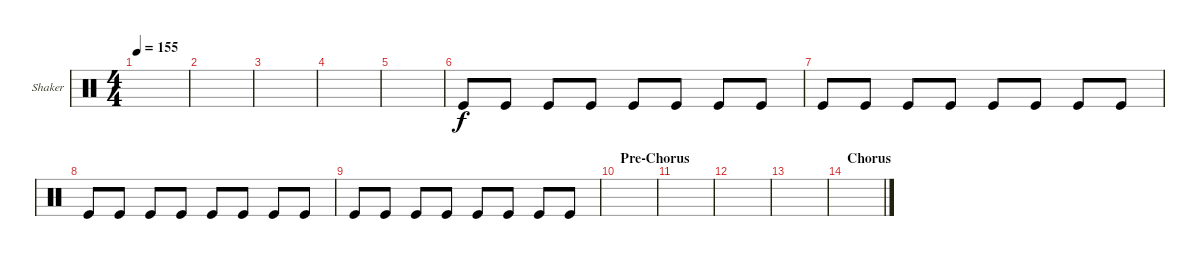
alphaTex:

\defaultSystemsLayout 4
\bracketExtendMode groupsimilarinstruments
\firstSystemTrackNameOrientation horizontal
\otherSystemsTrackNameOrientation horizontal
\track ("Shaker" "Shaker") {instrument percussion}
\staff {score}
\articulation defaults
\ts (4 4)
\tempo 155
\clef neutral
\scale
0.333333
\ks c
|
\scale
0.333333 |
\scale
0.333333 |
\scale
0.333333 |
\scale
0.333333 |
\scale
0.333333 "Kick (hit)".8 "Kick (hit)".8 "Kick (hit)".8 "Kick (hit)".8 "Kick (hit)".8 "Kick (hit)".8 "Kick (hit)".8 "Kick (hit)".8 |
\scale
0.333333 "Kick (hit)".8 "Kick (hit)".8 "Kick (hit)".8 "Kick (hit)".8 "Kick (hit)".8 "Kick (hit)".8 "Kick (hit)".8 "Kick (hit)".8 |
\scale
0.333333 "Kick (hit)".8 "Kick (hit)".8 "Kick (hit)".8 "Kick (hit)".8 "Kick (hit)".8 "Kick (hit)".8 "Kick (hit)".8 "Kick (hit)".8 |
\scale
0.333333 "Kick (hit)".8 "Kick (hit)".8 "Kick (hit)".8 "Kick (hit)".8 "Kick (hit)".8 "Kick (hit)".8 "Kick (hit)".8 "Kick (hit)".8 |
\section ("" "Pre-Chorus")
\scale
0.333333 |
\scale
0.333333 |
\scale
0.333333 |
\scale
0.333333 |
\section ("" "Chorus")
\scale
0.333333 |
\scale
0.333333 |
\scale
0.333333
